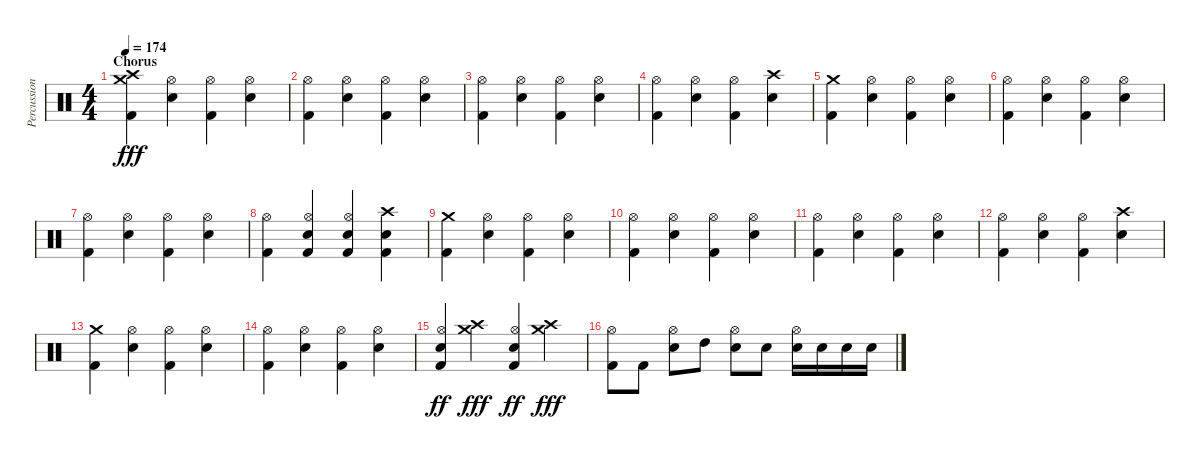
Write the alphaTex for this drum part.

\track ("Percussion" "Percussion") {instrument percussion}
\staff {score}
\articulation defaults
\ts (4 4)
\section ("" "Chorus")
\tempo 174
\clef neutral
\ks c
("Crash high (hit)" "Crash medium (hit)" "Kick (hit) 2").4{dy fff} ("Hi-Hat (open)" "Electric Snare (hit)").4 ("Hi-Hat (open)" "Kick (hit) 2").4 ("Hi-Hat (open)" "Electric Snare (hit)").4 |
("Hi-Hat (open)" "Kick (hit) 2").4 ("Hi-Hat (open)" "Electric Snare (hit)").4 ("Hi-Hat (open)" "Kick (hit) 2").4 ("Hi-Hat (open)" "Electric Snare (hit)").4 |
("Hi-Hat (open)" "Kick (hit) 2").4 ("Hi-Hat (open)" "Electric Snare (hit)").4 ("Hi-Hat (open)" "Kick (hit) 2").4 ("Hi-Hat (open)" "Electric Snare (hit)").4 |
("Hi-Hat (open)" "Kick (hit) 2").4 ("Hi-Hat (open)" "Electric Snare (hit)").4 ("Hi-Hat (open)" "Kick (hit) 2").4 ("Crash high (hit)" "Electric Snare (hit)").4 |
("Crash medium (hit)" "Kick (hit) 2").4 ("Hi-Hat (open)" "Electric Snare (hit)").4 ("Hi-Hat (open)" "Kick (hit) 2").4 ("Hi-Hat (open)" "Electric Snare (hit)").4 |
("Hi-Hat (open)" "Kick (hit) 2").4 ("Hi-Hat (open)" "Electric Snare (hit)").4 ("Hi-Hat (open)" "Kick (hit) 2").4 ("Hi-Hat (open)" "Electric Snare (hit)").4 |
("Hi-Hat (open)" "Kick (hit) 2").4 ("Hi-Hat (open)" "Electric Snare (hit)").4 ("Hi-Hat (open)" "Kick (hit) 2").4 ("Hi-Hat (open)" "Electric Snare (hit)").4 |
("Hi-Hat (open)" "Kick (hit) 2").4 ("Hi-Hat (open)" "Electric Snare (hit)" "Kick (hit) 2").4 ("Hi-Hat (open)" "Electric Snare (hit)" "Kick (hit) 2").4 ("Crash high (hit)" "Electric Snare (hit)" "Kick (hit) 2").4 |
("Crash medium (hit)" "Kick (hit) 2").4 ("Hi-Hat (open)" "Electric Snare (hit)").4 ("Hi-Hat (open)" "Kick (hit) 2").4 ("Hi-Hat (open)" "Electric Snare (hit)").4 |
("Hi-Hat (open)" "Kick (hit) 2").4 ("Hi-Hat (open)" "Electric Snare (hit)").4 ("Hi-Hat (open)" "Kick (hit) 2").4 ("Hi-Hat (open)" "Electric Snare (hit)").4 |
("Hi-Hat (open)" "Kick (hit) 2").4 ("Hi-Hat (open)" "Electric Snare (hit)").4 ("Hi-Hat (open)" "Kick (hit) 2").4 ("Hi-Hat (open)" "Electric Snare (hit)").4 |
("Hi-Hat (open)" "Kick (hit) 2").4 ("Hi-Hat (open)" "Electric Snare (hit)").4 ("Hi-Hat (open)" "Kick (hit) 2").4 ("Crash high (hit)" "Electric Snare (hit)").4 |
("Crash medium (hit)" "Kick (hit) 2").4 ("Hi-Hat (open)" "Electric Snare (hit)").4 ("Hi-Hat (open)" "Kick (hit) 2").4 ("Hi-Hat (open)" "Electric Snare (hit)").4 |
("Hi-Hat (open)" "Kick (hit) 2").4 ("Hi-Hat (open)" "Electric Snare (hit)").4 ("Hi-Hat (open)" "Kick (hit) 2").4 ("Hi-Hat (open)" "Electric Snare (hit)").4 |
("Hi-Hat (open)" "Electric Snare (hit)" "Kick (hit) 2").4{dy ff} ("Crash high (hit)" "Crash medium (hit)").4{dy fff} ("Hi-Hat (open)" "Electric Snare (hit)" "Kick (hit) 2").4{dy ff} ("Crash high (hit)" "Crash medium (hit)").4{dy fff} |
("Hi-Hat (open)" "Kick (hit) 2").8 "Kick (hit) 2".8 ("Hi-Hat (open)" "Electric Snare (hit)").8 "High Tom (hit)".8 ("Hi-Hat (open)" "Electric Snare (hit)").8 "Electric Snare (hit)".8 ("Hi-Hat (open)" "Electric Snare (hit)").16 "Electric Snare (hit)".16 "Electric Snare (hit)".16 "Electric Snare (hit)".16
